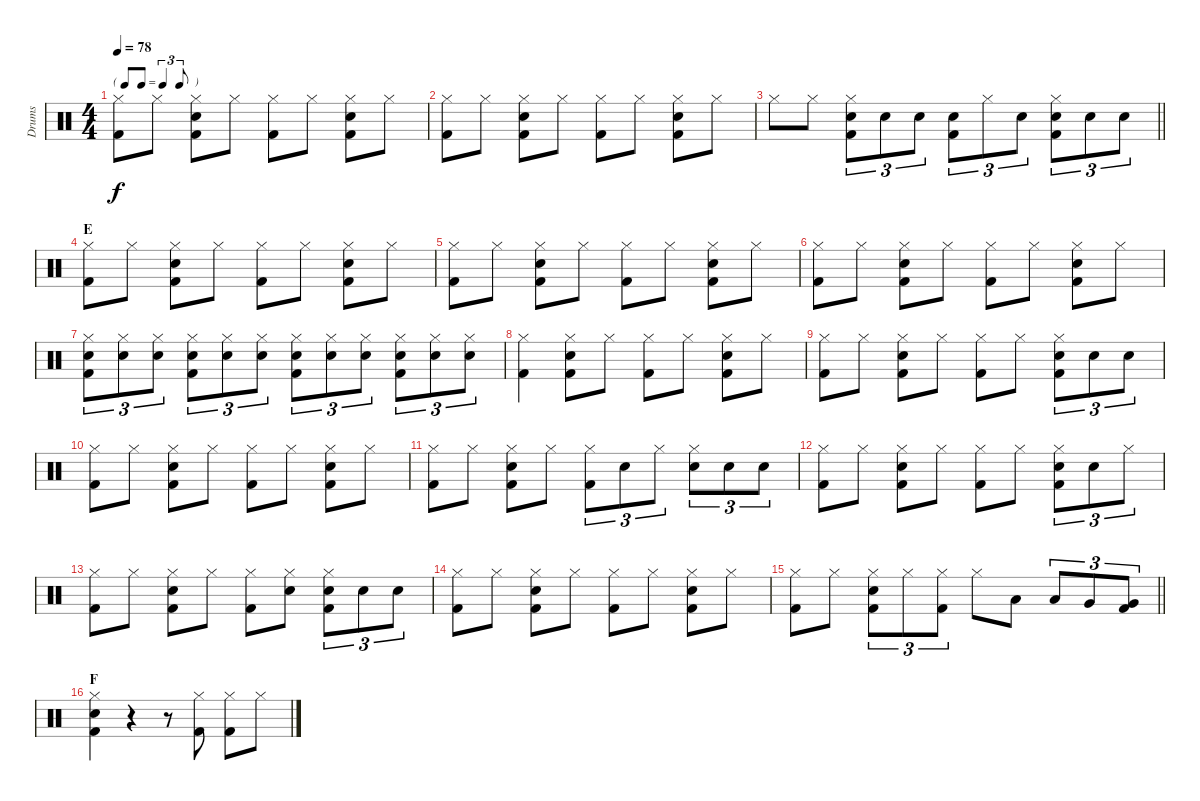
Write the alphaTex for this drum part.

\track ("Drums" "Drums") {instrument percussion}
\staff {score}
\articulation defaults
\ts (4 4)
\tf triplet8th
\tempo 78
\clef neutral
\ks c
("Hi-Hat (closed)" "Kick (hit) 2").8{dy f} "Hi-Hat (closed)".8 ("Hi-Hat (closed)" "Snare (hit) 2" "Kick (hit) 2").8 "Hi-Hat (closed)".8 ("Hi-Hat (closed)" "Kick (hit) 2").8 "Hi-Hat (closed)".8 ("Hi-Hat (closed)" "Snare (hit) 2" "Kick (hit) 2").8 "Hi-Hat (closed)".8 |
("Hi-Hat (closed)" "Kick (hit) 2").8 "Hi-Hat (closed)".8 ("Hi-Hat (closed)" "Snare (hit) 2" "Kick (hit) 2").8 "Hi-Hat (closed)".8 ("Hi-Hat (closed)" "Kick (hit) 2").8 "Hi-Hat (closed)".8 ("Hi-Hat (closed)" "Snare (hit) 2" "Kick (hit) 2").8 "Hi-Hat (closed)".8 |
\barLineRight lightlight "Hi-Hat (closed)".8 "Hi-Hat (closed)".8
("Hi-Hat (closed)" "Snare (hit) 2" "Kick (hit) 2").8{tu (3 2)} "Snare (hit) 2".8{tu (3 2)} "Snare (hit) 2".8{tu (3 2)} ("Snare (hit) 2" "Kick (hit) 2").8{tu (3 2)} "Hi-Hat (closed)".8{tu (3 2)} "Snare (hit) 2".8{tu (3 2)} ("Hi-Hat (closed)" "Snare (hit) 2" "Kick (hit) 2").8{tu (3 2)} "Snare (hit) 2".8{tu (3 2)} "Snare (hit) 2".8{tu (3 2)} |
\section ("" "E")
("Hi-Hat (closed)" "Kick (hit) 2").8 "Hi-Hat (closed)".8 ("Hi-Hat (closed)" "Snare (hit) 2" "Kick (hit) 2").8 "Hi-Hat (closed)".8 ("Hi-Hat (closed)" "Kick (hit) 2").8 "Hi-Hat (closed)".8 ("Hi-Hat (closed)" "Snare (hit) 2" "Kick (hit) 2").8 "Hi-Hat (closed)".8 |
("Hi-Hat (closed)" "Kick (hit) 2").8 "Hi-Hat (closed)".8 ("Hi-Hat (closed)" "Snare (hit) 2" "Kick (hit) 2").8 "Hi-Hat (closed)".8 ("Hi-Hat (closed)" "Kick (hit) 2").8 "Hi-Hat (closed)".8 ("Hi-Hat (closed)" "Snare (hit) 2" "Kick (hit) 2").8 "Hi-Hat (closed)".8 |
("Hi-Hat (closed)" "Kick (hit) 2").8 "Hi-Hat (closed)".8 ("Hi-Hat (closed)" "Snare (hit) 2" "Kick (hit) 2").8 "Hi-Hat (closed)".8 ("Hi-Hat (closed)" "Kick (hit) 2").8 "Hi-Hat (closed)".8 ("Hi-Hat (closed)" "Snare (hit) 2" "Kick (hit) 2").8 "Hi-Hat (closed)".8 |
("Hi-Hat (closed)" "Snare (hit) 2" "Kick (hit) 2").8{tu (3 2)} ("Hi-Hat (closed)" "Snare (hit) 2").8{tu (3 2)} ("Hi-Hat (closed)" "Snare (hit) 2").8{tu (3 2)} ("Hi-Hat (closed)" "Snare (hit) 2" "Kick (hit) 2").8{tu (3 2)} ("Hi-Hat (closed)" "Snare (hit) 2").8{tu (3 2)} ("Hi-Hat (closed)" "Snare (hit) 2").8{tu (3 2)} ("Hi-Hat (closed)" "Snare (hit) 2" "Kick (hit) 2").8{tu (3 2)} ("Hi-Hat (closed)" "Snare (hit) 2").8{tu (3 2)} ("Hi-Hat (closed)" "Snare (hit) 2").8{tu (3 2)} ("Hi-Hat (closed)" "Snare (hit) 2" "Kick (hit) 2").8{tu (3 2)} ("Hi-Hat (closed)" "Snare (hit) 2").8{tu (3 2)} ("Hi-Hat (closed)" "Snare (hit) 2").8{tu (3 2)} |
("Hi-Hat (closed)" "Kick (hit) 2").4 ("Hi-Hat (closed)" "Snare (hit) 2" "Kick (hit) 2").8 "Hi-Hat (closed)".8 ("Hi-Hat (closed)" "Kick (hit) 2").8 "Hi-Hat (closed)".8 ("Hi-Hat (closed)" "Snare (hit) 2" "Kick (hit) 2").8 "Hi-Hat (closed)".8 |
("Hi-Hat (closed)" "Kick (hit) 2").8 "Hi-Hat (closed)".8 ("Hi-Hat (closed)" "Snare (hit) 2" "Kick (hit) 2").8 "Hi-Hat (closed)".8 ("Hi-Hat (closed)" "Kick (hit) 2").8 "Hi-Hat (closed)".8 ("Hi-Hat (closed)" "Snare (hit) 2" "Kick (hit) 2").8{tu (3 2)} "Snare (hit) 2".8{tu (3 2)} "Snare (hit) 2".8{tu (3 2)} |
("Hi-Hat (closed)" "Kick (hit) 2").8 "Hi-Hat (closed)".8 ("Hi-Hat (closed)" "Snare (hit) 2" "Kick (hit) 2").8 "Hi-Hat (closed)".8 ("Hi-Hat (closed)" "Kick (hit) 2").8 "Hi-Hat (closed)".8 ("Hi-Hat (closed)" "Snare (hit) 2" "Kick (hit) 2").8 "Hi-Hat (closed)".8 |
("Hi-Hat (closed)" "Kick (hit) 2").8 "Hi-Hat (closed)".8 ("Hi-Hat (closed)" "Snare (hit) 2" "Kick (hit) 2").8 "Hi-Hat (closed)".8 ("Hi-Hat (closed)" "Kick (hit) 2").8{tu (3 2)} "Snare (hit) 2".8{tu (3 2)} "Hi-Hat (closed)".8{tu (3 2)} ("Hi-Hat (closed)" "Snare (hit) 2").8{tu (3 2)} "Snare (hit) 2".8{tu (3 2)} "Snare (hit) 2".8{tu (3 2)} |
("Hi-Hat (closed)" "Kick (hit) 2").8 "Hi-Hat (closed)".8 ("Hi-Hat (closed)" "Snare (hit) 2" "Kick (hit) 2").8 "Hi-Hat (closed)".8 ("Hi-Hat (closed)" "Kick (hit) 2").8 "Hi-Hat (closed)".8 ("Hi-Hat (closed)" "Snare (hit) 2" "Kick (hit) 2").8{tu (3 2)} "Snare (hit) 2".8{tu (3 2)} "Hi-Hat (closed)".8{tu (3 2)} |
("Hi-Hat (closed)" "Kick (hit) 2").8 "Hi-Hat (closed)".8 ("Hi-Hat (closed)" "Snare (hit) 2" "Kick (hit) 2").8 "Hi-Hat (closed)".8 ("Hi-Hat (closed)" "Kick (hit) 2").8 ("Hi-Hat (closed)" "Snare (hit) 2").8 ("Hi-Hat (closed)" "Snare (hit) 2" "Kick (hit) 2").8{tu (3 2)} "Snare (hit) 2".8{tu (3 2)} "Snare (hit) 2".8{tu (3 2)} |
("Hi-Hat (closed)" "Kick (hit) 2").8 "Hi-Hat (closed)".8 ("Hi-Hat (closed)" "Snare (hit) 2" "Kick (hit) 2").8 "Hi-Hat (closed)".8 ("Hi-Hat (closed)" "Kick (hit) 2").8 "Hi-Hat (closed)".8 ("Hi-Hat (closed)" "Snare (hit) 2" "Kick (hit) 2").8 "Hi-Hat (closed)".8 |
\barLineRight lightlight
("Hi-Hat (closed)" "Kick (hit) 2").8 "Hi-Hat (closed)".8 ("Hi-Hat (closed)" "Snare (hit) 2" "Kick (hit) 2").8{tu (3 2)} "Hi-Hat (closed)".8{tu (3 2)} ("Hi-Hat (closed)" "Kick (hit) 2").8{tu (3 2)} "Hi-Hat (closed)".8 "Low Tom (hit)".8 "Low Tom (hit)".8{tu (3 2)} "Very Low Tom (hit)".8{tu (3 2)} ("Very Low Tom (hit)" "Kick (hit) 2").8{tu (3 2)} |
\section ("" "F")
("Hi-Hat (closed)" "Snare (hit) 2" "Kick (hit) 2").4 r.4 r.8 ("Hi-Hat (closed)" "Kick (hit) 2").8 ("Hi-Hat (closed)" "Kick (hit) 2").8 "Hi-Hat (closed)".8
